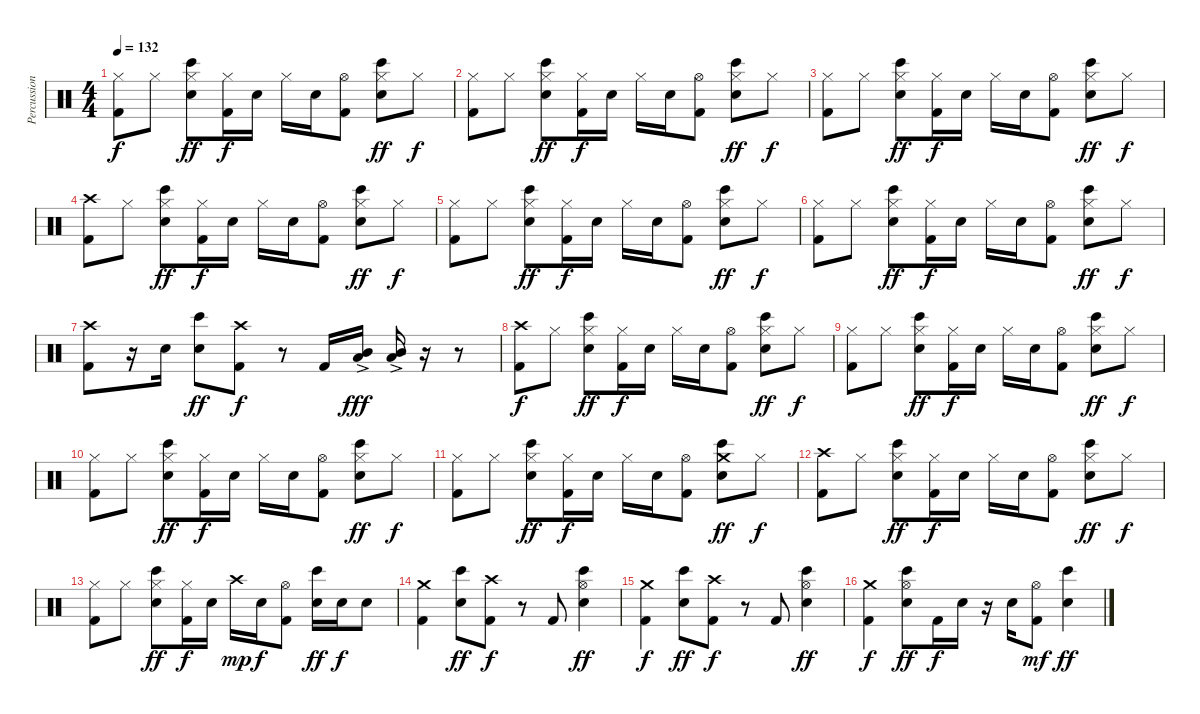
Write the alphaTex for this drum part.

\track ("Percussion" "Percussion") {instrument percussion}
\staff {score}
\articulation defaults
\ts (4 4)
\tempo 132
\clef neutral
\ks c
("Hi-Hat (closed)" "Kick (hit) 2").8{dy f} "Hi-Hat (closed)".8 ("Hi-Hat (closed)" "Bongo High (hit)" "Snare (hit) 2").8{dy ff} ("Hi-Hat (closed)" "Kick (hit) 2").16{dy f} "Snare (hit) 2".16 "Hi-Hat (closed)".16 "Snare (hit) 2".16 ("Hi-Hat (open)" "Kick (hit) 2").8 ("Hi-Hat (closed)" "Bongo High (hit)" "Snare (hit) 2").8{dy ff} "Hi-Hat (closed)".8{dy f} |
("Hi-Hat (closed)" "Kick (hit) 2").8 "Hi-Hat (closed)".8 ("Hi-Hat (closed)" "Bongo High (hit)" "Snare (hit) 2").8{dy ff} ("Hi-Hat (closed)" "Kick (hit) 2").16{dy f} "Snare (hit) 2".16 "Hi-Hat (closed)".16 "Snare (hit) 2".16 ("Hi-Hat (open)" "Kick (hit) 2").8 ("Hi-Hat (closed)" "Bongo High (hit)" "Snare (hit) 2").8{dy ff} "Hi-Hat (closed)".8{dy f} |
("Hi-Hat (closed)" "Kick (hit) 2").8 "Hi-Hat (closed)".8 ("Hi-Hat (closed)" "Bongo High (hit)" "Snare (hit) 2").8{dy ff} ("Hi-Hat (closed)" "Kick (hit) 2").16{dy f} "Snare (hit) 2".16 "Hi-Hat (closed)".16 "Snare (hit) 2".16 ("Hi-Hat (open)" "Kick (hit) 2").8 ("Hi-Hat (closed)" "Bongo High (hit)" "Snare (hit) 2").8{dy ff} "Hi-Hat (closed)".8{dy f} |
("Crash high (hit)" "Kick (hit) 2").8 "Hi-Hat (closed)".8 ("Hi-Hat (closed)" "Bongo High (hit)" "Snare (hit) 2").8{dy ff} ("Hi-Hat (closed)" "Kick (hit) 2").16{dy f} "Snare (hit) 2".16 "Hi-Hat (closed)".16 "Snare (hit) 2".16 ("Hi-Hat (open)" "Kick (hit) 2").8 ("Hi-Hat (closed)" "Bongo High (hit)" "Snare (hit) 2").8{dy ff} "Hi-Hat (closed)".8{dy f} |
("Hi-Hat (closed)" "Kick (hit) 2").8 "Hi-Hat (closed)".8 ("Hi-Hat (closed)" "Bongo High (hit)" "Snare (hit) 2").8{dy ff} ("Hi-Hat (closed)" "Kick (hit) 2").16{dy f} "Snare (hit) 2".16 "Hi-Hat (closed)".16 "Snare (hit) 2".16 ("Hi-Hat (open)" "Kick (hit) 2").8 ("Hi-Hat (closed)" "Bongo High (hit)" "Snare (hit) 2").8{dy ff} "Hi-Hat (closed)".8{dy f} |
("Hi-Hat (closed)" "Kick (hit) 2").8 "Hi-Hat (closed)".8 ("Hi-Hat (closed)" "Bongo High (hit)" "Snare (hit) 2").8{dy ff} ("Hi-Hat (closed)" "Kick (hit) 2").16{dy f} "Snare (hit) 2".16 "Hi-Hat (closed)".16 "Snare (hit) 2".16 ("Hi-Hat (open)" "Kick (hit) 2").8 ("Hi-Hat (closed)" "Bongo High (hit)" "Snare (hit) 2").8{dy ff} "Hi-Hat (closed)".8{dy f} |
("Crash high (hit)" "Kick (hit) 2").8 r.16 "Snare (hit) 2".16 ("Bongo High (hit)" "Snare (hit) 2").8{dy ff} ("Crash high (hit)" "Kick (hit) 2").8{dy f} r.8 "Kick (hit) 2".16 ("Mid Tom (hit)" "Low Tom (hit)"{ac}).16{dy fff} ("Mid Tom (hit)" "Low Tom (hit)"{ac}).16 r.16 r.8 |
("Crash high (hit)" "Kick (hit) 2").8{dy f} "Hi-Hat (closed)".8 ("Hi-Hat (closed)" "Bongo High (hit)" "Snare (hit) 2").8{dy ff} ("Hi-Hat (closed)" "Kick (hit) 2").16{dy f} "Snare (hit) 2".16 "Hi-Hat (closed)".16 "Snare (hit) 2".16 ("Hi-Hat (open)" "Kick (hit) 2").8 ("Hi-Hat (closed)" "Bongo High (hit)" "Snare (hit) 2").8{dy ff} "Hi-Hat (closed)".8{dy f} |
("Hi-Hat (closed)" "Kick (hit) 2").8 "Hi-Hat (closed)".8 ("Hi-Hat (closed)" "Bongo High (hit)" "Snare (hit) 2").8{dy ff} ("Hi-Hat (closed)" "Kick (hit) 2").16{dy f} "Snare (hit) 2".16 "Hi-Hat (closed)".16 "Snare (hit) 2".16 ("Hi-Hat (open)" "Kick (hit) 2").8 ("Hi-Hat (closed)" "Bongo High (hit)" "Snare (hit) 2").8{dy ff} "Hi-Hat (closed)".8{dy f} |
("Hi-Hat (closed)" "Kick (hit) 2").8 "Hi-Hat (closed)".8 ("Hi-Hat (closed)" "Bongo High (hit)" "Snare (hit) 2").8{dy ff} ("Hi-Hat (closed)" "Kick (hit) 2").16{dy f} "Snare (hit) 2".16 "Hi-Hat (closed)".16 "Snare (hit) 2".16 ("Hi-Hat (open)" "Kick (hit) 2").8 ("Hi-Hat (closed)" "Bongo High (hit)" "Snare (hit) 2").8{dy ff} "Hi-Hat (closed)".8{dy f} |
("Hi-Hat (closed)" "Kick (hit) 2").8 "Hi-Hat (closed)".8 ("Hi-Hat (closed)" "Bongo High (hit)" "Snare (hit) 2").8{dy ff} ("Hi-Hat (closed)" "Kick (hit) 2").16{dy f} "Snare (hit) 2".16 "Hi-Hat (closed)".16 "Snare (hit) 2".16 ("Hi-Hat (open)" "Kick (hit) 2").8 ("Crash medium (hit)" "Bongo High (hit)" "Snare (hit) 2").8{dy ff} "Hi-Hat (closed)".8{dy f} |
("Crash high (hit)" "Kick (hit) 2").8 "Hi-Hat (closed)".8 ("Hi-Hat (closed)" "Bongo High (hit)" "Snare (hit) 2").8{dy ff} ("Hi-Hat (closed)" "Kick (hit) 2").16{dy f} "Snare (hit) 2".16 "Hi-Hat (closed)".16 "Snare (hit) 2".16 ("Hi-Hat (open)" "Kick (hit) 2").8 ("Hi-Hat (closed)" "Bongo High (hit)" "Snare (hit) 2").8{dy ff} "Hi-Hat (closed)".8{dy f} |
("Hi-Hat (closed)" "Kick (hit) 2").8 "Hi-Hat (closed)".8 ("Hi-Hat (closed)" "Bongo High (hit)" "Snare (hit) 2").8{dy ff} ("Hi-Hat (closed)" "Kick (hit) 2").16{dy f} "Snare (hit) 2".16 "Crash high (hit)".16{dy mp} "Snare (hit) 2".16{dy f} ("Hi-Hat (open)" "Kick (hit) 2").8 ("Bongo High (hit)" "Snare (hit) 2").16{dy ff} "Snare (hit) 2".16{dy f} "Snare (hit) 2".8 |
("Crash medium (hit)" "Kick (hit) 2").4 ("Bongo High (hit)" "Snare (hit) 2").8{dy ff} ("Crash high (hit)" "Kick (hit) 2").8{dy f} r.8 "Kick (hit) 2".8 ("Hi-Hat (open)" "Bongo High (hit)" "Snare (hit) 2").4{dy ff} |
("Crash medium (hit)" "Kick (hit) 2").4{dy f} ("Bongo High (hit)" "Snare (hit) 2").8{dy ff} ("Crash high (hit)" "Kick (hit) 2").8{dy f} r.8 "Kick (hit) 2".8 ("Hi-Hat (open)" "Bongo High (hit)" "Snare (hit) 2").4{dy ff} |
("Crash medium (hit)" "Kick (hit) 2").4{dy f} ("Hi-Hat (open)" "Bongo High (hit)" "Snare (hit) 2").8{dy ff} "Kick (hit) 2".16{dy f} "Snare (hit) 2".16 r.16 "Snare (hit) 2".16 ("Hi-Hat (open)" "Kick (hit) 2").8{dy mf} ("Bongo High (hit)" "Snare (hit) 2").4{dy ff}
